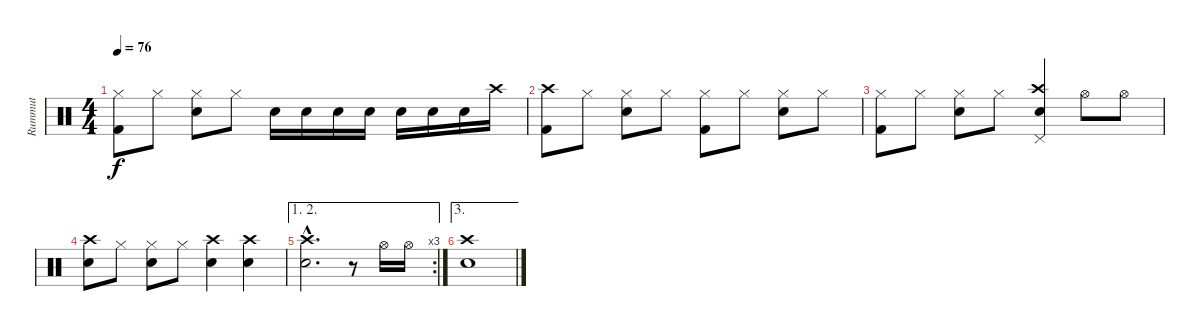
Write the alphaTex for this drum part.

\track ("Rummut" "Rummut") {instrument percussion}
\staff {score}
\articulation defaults
\ts (4 4)
\tempo 76
\clef neutral
\ks c
("Kick (hit) 2" "Hi-Hat (closed)").8{dy f} "Hi-Hat (closed)".8 ("Snare (hit) 2" "Hi-Hat (closed)").8 "Hi-Hat (closed)".8 "Snare (hit) 2".16 "Snare (hit) 2".16 "Snare (hit) 2".16 "Snare (hit) 2".16 "Snare (hit) 2".16 "Snare (hit) 2".16 "Snare (hit) 2".16 "Crash high (hit)".16 |
("Kick (hit) 2" "Crash high (hit)").8 "Hi-Hat (closed)".8 ("Snare (hit) 2" "Hi-Hat (closed)").8 "Hi-Hat (closed)".8 ("Kick (hit) 2" "Hi-Hat (closed)").8 "Hi-Hat (closed)".8 ("Snare (hit) 2" "Hi-Hat (closed)").8 "Hi-Hat (closed)".8 |
("Kick (hit) 2" "Hi-Hat (closed)").8 "Hi-Hat (closed)".8 ("Snare (hit) 2" "Hi-Hat (closed)").8 "Hi-Hat (closed)".8 ("Snare (hit) 2" "Pedal Hi-Hat (hit)" "Crash high (hit)").4 "Hi-Hat (open)".8 "Hi-Hat (open)".8 |
("Snare (hit) 2" "Crash high (hit)").8 "Hi-Hat (closed)".8 ("Snare (hit) 2" "Hi-Hat (closed)").8 "Hi-Hat (closed)".8 ("Snare (hit) 2" "Crash high (hit)").4 ("Snare (hit) 2" "Crash high (hit)").4 |
\ae (1 2)
\rc 3
("Snare (hit) 2"{hac} "Crash high (hit)"{hac}).2{d} r.8 "Hi-Hat (open)".16 "Hi-Hat (open)".16 |
\ae 3
("Snare (hit) 2" "Crash high (hit)").1
